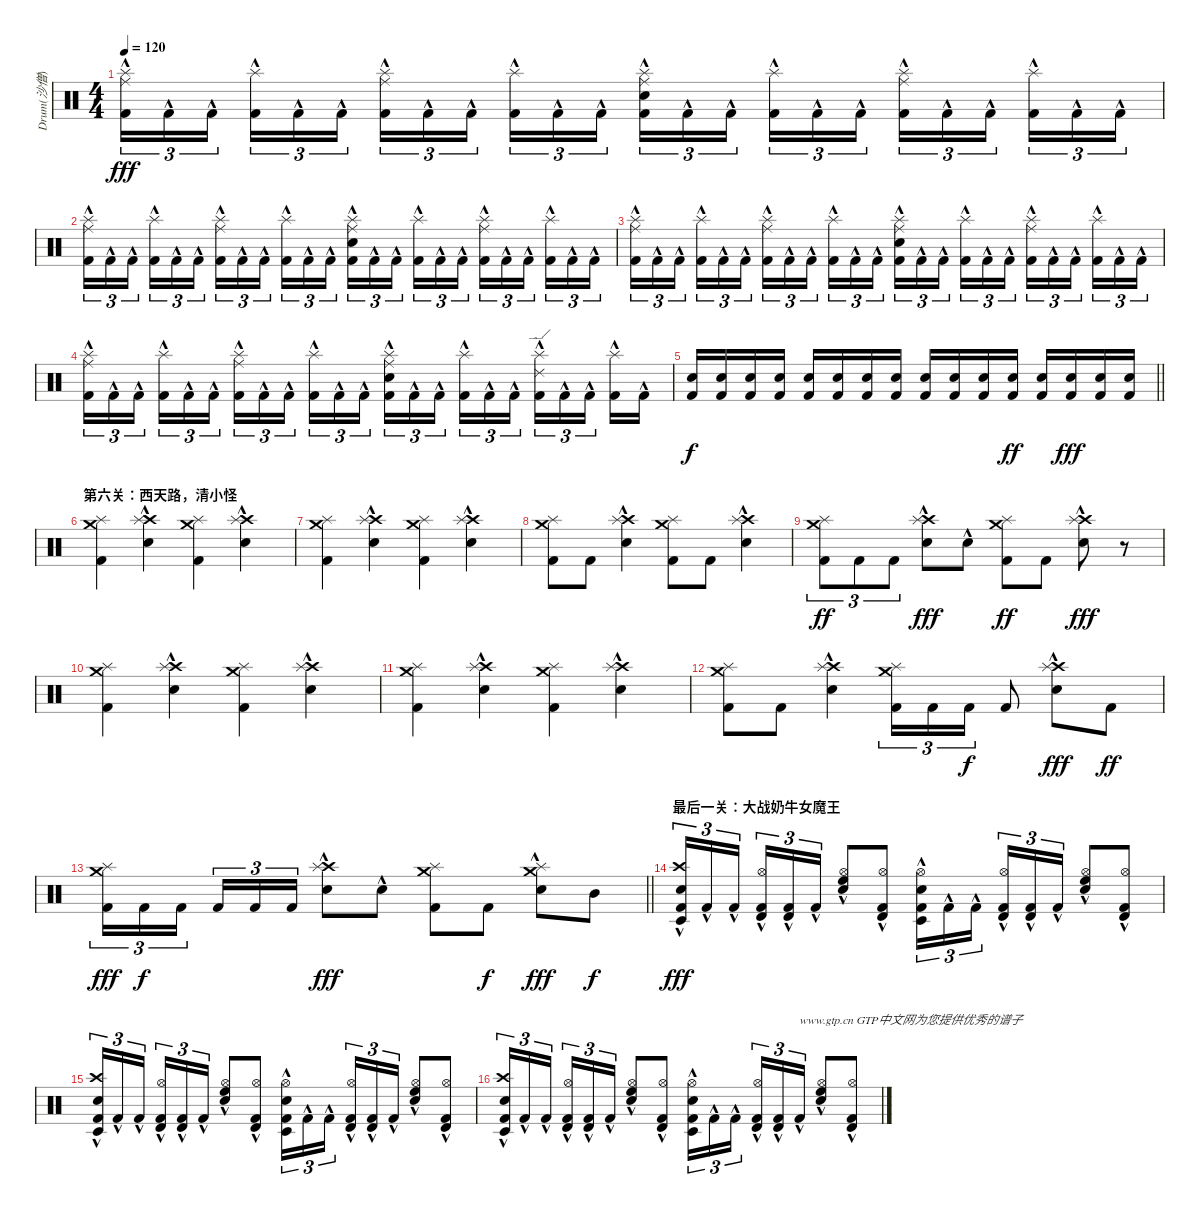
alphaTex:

\track ("Drum(沙僧)" "Drum(沙僧)") {instrument percussion}
\staff {score}
\articulation defaults
\ts (4 4)
\tempo 120
\clef neutral
\ks c
("Ride (middle)"{hac} "Splash (hit)" "Kick (hit) 2"{hac}).16{tu (3 2) dy fff} "Kick (hit) 2"{hac}.16{tu (3 2)} "Kick (hit) 2"{hac}.16{tu (3 2) beam splitsecondary} ("Splash (hit)" "Kick (hit) 2"{hac}).16{tu (3 2)} "Kick (hit) 2"{hac}.16{tu (3 2)} "Kick (hit) 2"{hac}.16{tu (3 2)} ("Ride (middle)"{hac} "Splash (hit)" "Kick (hit) 2"{hac}).16{tu (3 2)} "Kick (hit) 2"{hac}.16{tu (3 2)} "Kick (hit) 2"{hac}.16{tu (3 2) beam splitsecondary} ("Splash (hit)" "Kick (hit) 2"{hac}).16{tu (3 2)} "Kick (hit) 2"{hac}.16{tu (3 2)} "Kick (hit) 2"{hac}.16{tu (3 2)} ("Ride (middle)"{hac} "Splash (hit)" "Snare (hit) 2" "Kick (hit) 2"{hac}).16{tu (3 2)} "Kick (hit) 2"{hac}.16{tu (3 2)} "Kick (hit) 2"{hac}.16{tu (3 2) beam splitsecondary} ("Splash (hit)" "Kick (hit) 2"{hac}).16{tu (3 2)} "Kick (hit) 2"{hac}.16{tu (3 2)} "Kick (hit) 2"{hac}.16{tu (3 2)} ("Ride (middle)"{hac} "Splash (hit)" "Kick (hit) 2"{hac}).16{tu (3 2)} "Kick (hit) 2"{hac}.16{tu (3 2)} "Kick (hit) 2"{hac}.16{tu (3 2) beam splitsecondary} ("Splash (hit)" "Kick (hit) 2"{hac}).16{tu (3 2)} "Kick (hit) 2"{hac}.16{tu (3 2)} "Kick (hit) 2"{hac}.16{tu (3 2)} |
("Ride (middle)"{hac} "Splash (hit)" "Kick (hit) 2"{hac}).16{tu (3 2)} "Kick (hit) 2"{hac}.16{tu (3 2)} "Kick (hit) 2"{hac}.16{tu (3 2) beam splitsecondary} ("Splash (hit)" "Kick (hit) 2"{hac}).16{tu (3 2)} "Kick (hit) 2"{hac}.16{tu (3 2)} "Kick (hit) 2"{hac}.16{tu (3 2)} ("Ride (middle)"{hac} "Splash (hit)" "Kick (hit) 2"{hac}).16{tu (3 2)} "Kick (hit) 2"{hac}.16{tu (3 2)} "Kick (hit) 2"{hac}.16{tu (3 2) beam splitsecondary} ("Splash (hit)" "Kick (hit) 2"{hac}).16{tu (3 2)} "Kick (hit) 2"{hac}.16{tu (3 2)} "Kick (hit) 2"{hac}.16{tu (3 2)} ("Ride (middle)"{hac} "Splash (hit)" "Snare (hit) 2" "Kick (hit) 2"{hac}).16{tu (3 2)} "Kick (hit) 2"{hac}.16{tu (3 2)} "Kick (hit) 2"{hac}.16{tu (3 2) beam splitsecondary} ("Splash (hit)" "Kick (hit) 2"{hac}).16{tu (3 2)} "Kick (hit) 2"{hac}.16{tu (3 2)} "Kick (hit) 2"{hac}.16{tu (3 2)} ("Ride (middle)"{hac} "Splash (hit)" "Kick (hit) 2"{hac}).16{tu (3 2)} "Kick (hit) 2"{hac}.16{tu (3 2)} "Kick (hit) 2"{hac}.16{tu (3 2) beam splitsecondary} ("Splash (hit)" "Kick (hit) 2"{hac}).16{tu (3 2)} "Kick (hit) 2"{hac}.16{tu (3 2)} "Kick (hit) 2"{hac}.16{tu (3 2)} |
("Ride (middle)"{hac} "Splash (hit)" "Kick (hit) 2"{hac}).16{tu (3 2)} "Kick (hit) 2"{hac}.16{tu (3 2)} "Kick (hit) 2"{hac}.16{tu (3 2) beam splitsecondary} ("Splash (hit)" "Kick (hit) 2"{hac}).16{tu (3 2)} "Kick (hit) 2"{hac}.16{tu (3 2)} "Kick (hit) 2"{hac}.16{tu (3 2)} ("Ride (middle)"{hac} "Splash (hit)" "Kick (hit) 2"{hac}).16{tu (3 2)} "Kick (hit) 2"{hac}.16{tu (3 2)} "Kick (hit) 2"{hac}.16{tu (3 2) beam splitsecondary} ("Splash (hit)" "Kick (hit) 2"{hac}).16{tu (3 2)} "Kick (hit) 2"{hac}.16{tu (3 2)} "Kick (hit) 2"{hac}.16{tu (3 2)} ("Ride (middle)"{hac} "Splash (hit)" "Snare (hit) 2" "Kick (hit) 2"{hac}).16{tu (3 2)} "Kick (hit) 2"{hac}.16{tu (3 2)} "Kick (hit) 2"{hac}.16{tu (3 2) beam splitsecondary} ("Splash (hit)" "Kick (hit) 2"{hac}).16{tu (3 2)} "Kick (hit) 2"{hac}.16{tu (3 2)} "Kick (hit) 2"{hac}.16{tu (3 2)} ("Ride (middle)"{hac} "Splash (hit)" "Kick (hit) 2"{hac}).16{tu (3 2)} "Kick (hit) 2"{hac}.16{tu (3 2)} "Kick (hit) 2"{hac}.16{tu (3 2) beam splitsecondary} ("Splash (hit)" "Kick (hit) 2"{hac}).16{tu (3 2)} "Kick (hit) 2"{hac}.16{tu (3 2)} "Kick (hit) 2"{hac}.16{tu (3 2)} |
("Ride (middle)"{hac} "Splash (hit)" "Kick (hit) 2"{hac}).16{tu (3 2)} "Kick (hit) 2"{hac}.16{tu (3 2)} "Kick (hit) 2"{hac}.16{tu (3 2) beam splitsecondary} ("Splash (hit)" "Kick (hit) 2"{hac}).16{tu (3 2)} "Kick (hit) 2"{hac}.16{tu (3 2)} "Kick (hit) 2"{hac}.16{tu (3 2)} ("Ride (middle)"{hac} "Splash (hit)" "Kick (hit) 2"{hac}).16{tu (3 2)} "Kick (hit) 2"{hac}.16{tu (3 2)} "Kick (hit) 2"{hac}.16{tu (3 2) beam splitsecondary} ("Splash (hit)" "Kick (hit) 2"{hac}).16{tu (3 2)} "Kick (hit) 2"{hac}.16{tu (3 2)} "Kick (hit) 2"{hac}.16{tu (3 2)} ("Ride (middle)"{hac} "Splash (hit)" "Snare (hit) 2" "Kick (hit) 2"{hac}).16{tu (3 2)} "Kick (hit) 2"{hac}.16{tu (3 2)} "Kick (hit) 2"{hac}.16{tu (3 2) beam splitsecondary} ("Splash (hit)" "Kick (hit) 2"{hac}).16{tu (3 2)} "Kick (hit) 2"{hac}.16{tu (3 2)} "Kick (hit) 2"{hac}.16{tu (3 2)} ("Ride (edge) 2"{hac} "Splash (hit)" "Kick (hit) 2"{hac}).16{tu (3 2)} "Kick (hit) 2"{hac}.16{tu (3 2)} "Kick (hit) 2"{hac}.16{tu (3 2) beam splitsecondary} ("Splash (hit)" "Kick (hit) 2"{hac}).16 "Kick (hit) 2"{hac}.16 |
\barLineRight lightlight
("Snare (hit) 2" "Kick (hit) 2").16{dy f} ("Snare (hit) 2" "Kick (hit) 2").16 ("Snare (hit) 2" "Kick (hit) 2").16 ("Snare (hit) 2" "Kick (hit) 2").16 ("Snare (hit) 2" "Kick (hit) 2").16 ("Snare (hit) 2" "Kick (hit) 2").16 ("Snare (hit) 2" "Kick (hit) 2").16 ("Snare (hit) 2" "Kick (hit) 2").16 ("Snare (hit) 2" "Kick (hit) 2").16 ("Snare (hit) 2" "Kick (hit) 2").16 ("Snare (hit) 2" "Kick (hit) 2").16 ("Snare (hit) 2" "Kick (hit) 2").16{dy ff} ("Snare (hit) 2" "Kick (hit) 2").16 ("Snare (hit) 2" "Kick (hit) 2").16{dy fff} ("Snare (hit) 2" "Kick (hit) 2").16 ("Snare (hit) 2" "Kick (hit) 2").16 |
\section ("" "第六关：西天路，清小怪")
("Crash medium (hit)" "Splash (hit)" "Kick (hit) 2").4{volume 16 balance 8} ("Crash high (hit)" "Splash (hit)" "Snare (hit) 2"{hac}).4 ("Crash medium (hit)" "Splash (hit)" "Kick (hit) 2").4 ("Crash high (hit)" "Splash (hit)" "Snare (hit) 2"{hac}).4 |
("Crash medium (hit)" "Splash (hit)" "Kick (hit) 2").4 ("Crash high (hit)" "Splash (hit)" "Snare (hit) 2"{hac}).4 ("Crash medium (hit)" "Splash (hit)" "Kick (hit) 2").4 ("Crash high (hit)" "Splash (hit)" "Snare (hit) 2"{hac}).4 |
("Crash medium (hit)" "Splash (hit)" "Kick (hit) 2").8 "Kick (hit) 2".8 ("Crash high (hit)" "Splash (hit)" "Snare (hit) 2"{hac}).4 ("Crash medium (hit)" "Splash (hit)" "Kick (hit) 2").8 "Kick (hit) 2".8 ("Crash high (hit)" "Splash (hit)" "Snare (hit) 2"{hac}).4 |
("Crash medium (hit)" "Splash (hit)" "Kick (hit) 2").8{tu (3 2) dy ff} "Kick (hit) 2".8{tu (3 2)} "Kick (hit) 2".8{tu (3 2)} ("Crash high (hit)" "Splash (hit)" "Snare (hit) 2"{hac}).8{dy fff} "Snare (hit) 2"{hac}.8 ("Crash medium (hit)" "Splash (hit)" "Kick (hit) 2").8{dy ff} "Kick (hit) 2".8 ("Crash high (hit)" "Splash (hit)" "Snare (hit) 2"{hac}).8{dy fff} r.8 |
("Crash medium (hit)" "Splash (hit)" "Kick (hit) 2").4 ("Crash high (hit)" "Splash (hit)" "Snare (hit) 2"{hac}).4 ("Crash medium (hit)" "Splash (hit)" "Kick (hit) 2").4 ("Crash high (hit)" "Splash (hit)" "Snare (hit) 2"{hac}).4 |
("Crash medium (hit)" "Splash (hit)" "Kick (hit) 2").4 ("Crash high (hit)" "Splash (hit)" "Snare (hit) 2"{hac}).4 ("Crash medium (hit)" "Splash (hit)" "Kick (hit) 2").4 ("Crash high (hit)" "Splash (hit)" "Snare (hit) 2"{hac}).4 |
("Crash medium (hit)" "Splash (hit)" "Kick (hit) 2").8 "Kick (hit) 2".8 ("Crash high (hit)" "Splash (hit)" "Snare (hit) 2"{hac}).4 ("Crash medium (hit)" "Splash (hit)" "Kick (hit) 2").16{tu (3 2)} "Kick (hit) 2".16{tu (3 2)} "Kick (hit) 2".16{tu (3 2) dy f} "Kick (hit) 2".8 ("Crash high (hit)" "Splash (hit)" "Snare (hit) 2"{hac}).8{dy fff} "Kick (hit) 2".8{dy ff} |
\barLineRight lightlight
("Crash medium (hit)" "Splash (hit)" "Kick (hit) 2").16{tu (3 2) dy fff} "Kick (hit) 2".16{tu (3 2) dy f} "Kick (hit) 2".16{tu (3 2) beam splitsecondary} "Kick (hit) 2".16{tu (3 2)} "Kick (hit) 2".16{tu (3 2)} "Kick (hit) 2".16{tu (3 2)} ("Crash high (hit)" "Splash (hit)" "Snare (hit) 2"{hac}).8{dy fff} "Snare (hit) 2"{hac}.8 ("Crash medium (hit)" "Splash (hit)" "Kick (hit) 2").8 "Kick (hit) 2".8{dy f} ("Crash medium (hit)" "Splash (hit)" "Snare (hit) 2"{hac}).8{dy fff} "Mid Tom (hit)".8{dy f} |
\section ("" "最后一关：大战奶牛女魔王")
("Kick (hit) 2"{hac} "Snare (hit) 2"{hac} "Crash high (hit)" "Timbale low (hit)").16{tu (3 2) dy fff volume 16} "Kick (hit) 2"{hac}.16{tu (3 2)} "Kick (hit) 2"{hac}.16{tu (3 2) beam splitsecondary} ("Kick (hit) 2"{hac} "Hi-Hat (open)" "Timbale high (hit)").16{tu (3 2)} ("Kick (hit) 2"{hac} "Timbale high (hit)").16{tu (3 2)} "Kick (hit) 2"{hac}.16{tu (3 2)} ("Snare (hit) 2"{hac} "Hi-Hat (open)" "High Floor Tom (hit)"{hac}).8 ("Kick (hit) 2"{hac} "Hi-Hat (open)" "Timbale high (hit)").8 ("Kick (hit) 2" "Snare (hit) 2"{hac} "Hi-Hat (open)" "Timbale low (hit)").16{tu (3 2)} "Kick (hit) 2"{hac}.16{tu (3 2)} "Kick (hit) 2"{hac}.16{tu (3 2) beam splitsecondary} ("Kick (hit) 2"{hac} "Hi-Hat (open)" "Timbale high (hit)").16{tu (3 2)} ("Kick (hit) 2"{hac} "Timbale high (hit)").16{tu (3 2)} "Kick (hit) 2"{hac}.16{tu (3 2)} ("Snare (hit) 2"{hac} "Hi-Hat (open)" "High Floor Tom (hit)"{hac}).8 ("Kick (hit) 2"{hac} "Hi-Hat (open)" "Timbale high (hit)").8 |
("Kick (hit) 2"{hac} "Snare (hit) 2"{hac} "Crash high (hit)" "Timbale low (hit)").16{tu (3 2)} "Kick (hit) 2"{hac}.16{tu (3 2)} "Kick (hit) 2"{hac}.16{tu (3 2) beam splitsecondary} ("Kick (hit) 2"{hac} "Hi-Hat (open)" "Timbale high (hit)").16{tu (3 2)} ("Kick (hit) 2"{hac} "Timbale high (hit)").16{tu (3 2)} "Kick (hit) 2"{hac}.16{tu (3 2)} ("Snare (hit) 2"{hac} "Hi-Hat (open)" "High Floor Tom (hit)"{hac}).8 ("Kick (hit) 2"{hac} "Hi-Hat (open)" "Timbale high (hit)").8 ("Kick (hit) 2" "Snare (hit) 2"{hac} "Hi-Hat (open)" "Timbale low (hit)").16{tu (3 2)} "Kick (hit) 2"{hac}.16{tu (3 2)} "Kick (hit) 2"{hac}.16{tu (3 2) beam splitsecondary} ("Kick (hit) 2"{hac} "Hi-Hat (open)" "Timbale high (hit)").16{tu (3 2)} ("Kick (hit) 2"{hac} "Timbale high (hit)").16{tu (3 2)} "Kick (hit) 2"{hac}.16{tu (3 2)} ("Snare (hit) 2"{hac} "Hi-Hat (open)" "High Floor Tom (hit)"{hac}).8 ("Kick (hit) 2"{hac} "Hi-Hat (open)" "Timbale high (hit)").8 |
("Kick (hit) 2"{hac} "Snare (hit) 2"{hac} "Crash high (hit)" "Timbale low (hit)").16{tu (3 2)} "Kick (hit) 2"{hac}.16{tu (3 2)} "Kick (hit) 2"{hac}.16{tu (3 2) beam splitsecondary} ("Kick (hit) 2"{hac} "Hi-Hat (open)" "Timbale high (hit)").16{tu (3 2)} ("Kick (hit) 2"{hac} "Timbale high (hit)").16{tu (3 2)} "Kick (hit) 2"{hac}.16{tu (3 2)} ("Snare (hit) 2"{hac} "Hi-Hat (open)" "High Floor Tom (hit)"{hac}).8 ("Kick (hit) 2"{hac} "Hi-Hat (open)" "Timbale high (hit)").8 ("Kick (hit) 2" "Snare (hit) 2"{hac} "Hi-Hat (open)" "Timbale low (hit)").16{tu (3 2)} "Kick (hit) 2"{hac}.16{tu (3 2)} "Kick (hit) 2"{hac}.16{tu (3 2) beam splitsecondary} ("Kick (hit) 2"{hac} "Hi-Hat (open)" "Timbale high (hit)").16{tu (3 2)} ("Kick (hit) 2"{hac} "Timbale high (hit)").16{tu (3 2)} "Kick (hit) 2"{hac}.16{tu (3 2) txt "www.gtp.cn GTP中文网为您提供优秀的谱子"} ("Snare (hit) 2"{hac} "Hi-Hat (open)" "High Floor Tom (hit)"{hac}).8 ("Kick (hit) 2"{hac} "Hi-Hat (open)" "Timbale high (hit)").8
